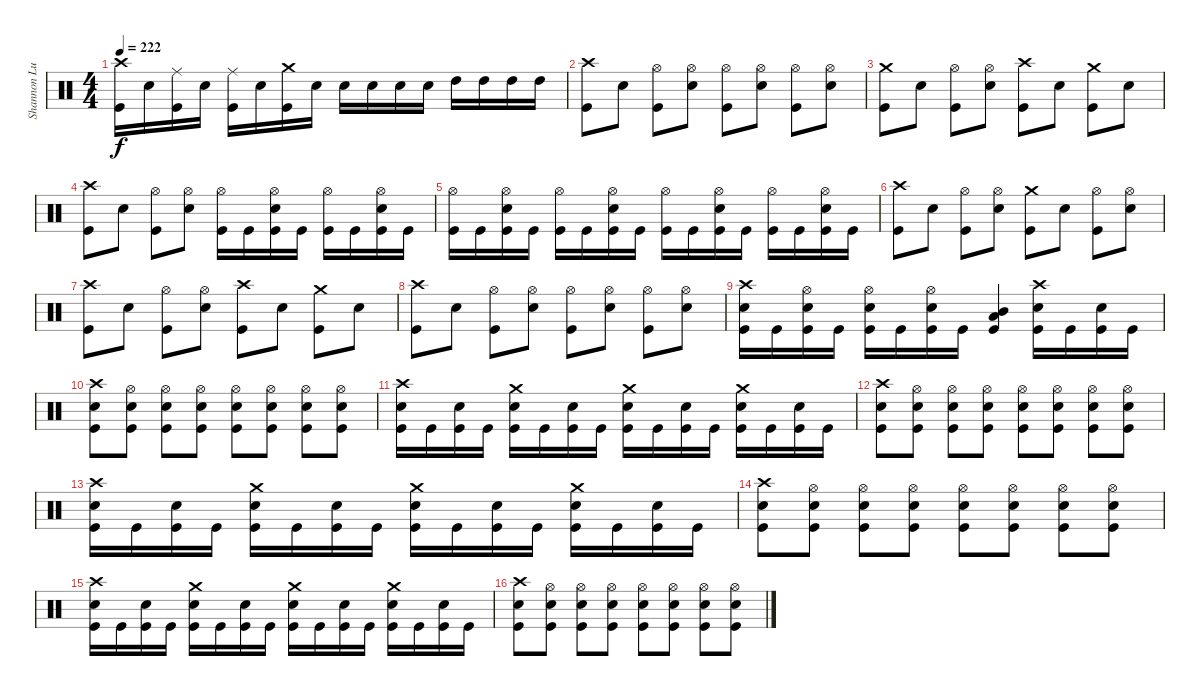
\track ("Shannon Lucas" "Shannon Lu") {instrument percussion}
\staff {score}
\articulation defaults
\ts (4 4)
\tempo 222
\clef neutral
\ks c
("Crash high (hit)" "Kick (hit)").16{dy f} "Snare (hit) 2".16 ("Ride (middle)" "Kick (hit)").16 "Snare (hit) 2".16 ("Ride (middle)" "Kick (hit)").16 "Snare (hit) 2".16 ("Crash medium (hit)" "Kick (hit)").16 "Snare (hit) 2".16 "Snare (hit) 2".16 "Snare (hit) 2".16 "Snare (hit) 2".16 "Snare (hit) 2".16 "High Tom (hit)".16 "High Tom (hit)".16 "High Tom (hit)".16 "High Tom (hit)".16 |
("Crash high (hit)" "Kick (hit)").8 "Snare (hit) 2".8 ("Hi-Hat (open)" "Kick (hit)").8 ("Hi-Hat (open)" "Snare (hit) 2").8 ("Hi-Hat (open)" "Kick (hit)").8 ("Hi-Hat (open)" "Snare (hit) 2").8 ("Hi-Hat (open)" "Kick (hit)").8 ("Hi-Hat (open)" "Snare (hit) 2").8 |
("Crash medium (hit)" "Kick (hit)").8 "Snare (hit) 2".8 ("Hi-Hat (open)" "Kick (hit)").8 ("Hi-Hat (open)" "Snare (hit) 2").8 ("Crash high (hit)" "Kick (hit)").8 "Snare (hit) 2".8 ("Crash medium (hit)" "Kick (hit)").8 "Snare (hit) 2".8 |
("Crash high (hit)" "Kick (hit)").8 "Snare (hit) 2".8 ("Hi-Hat (open)" "Kick (hit)").8 ("Hi-Hat (open)" "Snare (hit) 2").8 ("Hi-Hat (open)" "Kick (hit)").16 "Kick (hit)".16 ("Hi-Hat (open)" "Snare (hit) 2" "Kick (hit)").16 "Kick (hit)".16 ("Hi-Hat (open)" "Kick (hit)").16 "Kick (hit)".16 ("Hi-Hat (open)" "Snare (hit) 2" "Kick (hit)").16 "Kick (hit)".16 |
("Hi-Hat (open)" "Kick (hit)").16 "Kick (hit)".16 ("Hi-Hat (open)" "Snare (hit) 2" "Kick (hit)").16 "Kick (hit)".16 ("Hi-Hat (open)" "Kick (hit)").16 "Kick (hit)".16 ("Hi-Hat (open)" "Snare (hit) 2" "Kick (hit)").16 "Kick (hit)".16 ("Hi-Hat (open)" "Kick (hit)").16 "Kick (hit)".16 ("Hi-Hat (open)" "Snare (hit) 2" "Kick (hit)").16 "Kick (hit)".16 ("Hi-Hat (open)" "Kick (hit)").16 "Kick (hit)".16 ("Hi-Hat (open)" "Snare (hit) 2" "Kick (hit)").16 "Kick (hit)".16 |
("Crash high (hit)" "Kick (hit)").8 "Snare (hit) 2".8 ("Hi-Hat (open)" "Kick (hit)").8 ("Hi-Hat (open)" "Snare (hit) 2").8 ("Crash medium (hit)" "Kick (hit)").8 "Snare (hit) 2".8 ("Hi-Hat (open)" "Kick (hit)").8 ("Hi-Hat (open)" "Snare (hit) 2").8 |
("Crash high (hit)" "Kick (hit)").8 "Snare (hit) 2".8 ("Hi-Hat (open)" "Kick (hit)").8 ("Hi-Hat (open)" "Snare (hit) 2").8 ("Crash high (hit)" "Kick (hit)").8 "Snare (hit) 2".8 ("Crash medium (hit)" "Kick (hit)").8 "Snare (hit) 2".8 |
("Crash high (hit)" "Kick (hit)").8 "Snare (hit) 2".8 ("Hi-Hat (open)" "Kick (hit)").8 ("Hi-Hat (open)" "Snare (hit) 2").8 ("Hi-Hat (open)" "Kick (hit)").8 ("Hi-Hat (open)" "Snare (hit) 2").8 ("Hi-Hat (open)" "Kick (hit)").8 ("Hi-Hat (open)" "Snare (hit) 2").8 |
("Crash high (hit)" "Snare (hit) 2" "Kick (hit)").16 "Kick (hit)".16 ("Hi-Hat (open)" "Snare (hit) 2" "Kick (hit)").16 "Kick (hit)".16 ("Hi-Hat (open)" "Snare (hit) 2" "Kick (hit)").16 "Kick (hit)".16 ("Hi-Hat (open)" "Snare (hit) 2" "Kick (hit)").16 "Kick (hit)".16 ("Low Tom (hit)" "Mid Tom (hit)" "Kick (hit)").4 ("Crash high (hit)" "Snare (hit) 2" "Kick (hit)").16 "Kick (hit)".16 ("Snare (hit) 2" "Kick (hit)").16 "Kick (hit)".16 |
("Crash high (hit)" "Snare (hit) 2" "Kick (hit)").8 ("Hi-Hat (open)" "Snare (hit) 2" "Kick (hit)").8 ("Hi-Hat (open)" "Snare (hit) 2" "Kick (hit)").8 ("Hi-Hat (open)" "Snare (hit) 2" "Kick (hit)").8 ("Hi-Hat (open)" "Snare (hit) 2" "Kick (hit)").8 ("Hi-Hat (open)" "Snare (hit) 2" "Kick (hit)").8 ("Hi-Hat (open)" "Snare (hit) 2" "Kick (hit)").8 ("Hi-Hat (open)" "Snare (hit) 2" "Kick (hit)").8 |
("Crash high (hit)" "Snare (hit) 2" "Kick (hit)").16 "Kick (hit)".16 ("Snare (hit) 2" "Kick (hit)").16 "Kick (hit)".16 ("Crash medium (hit)" "Snare (hit) 2" "Kick (hit)").16 "Kick (hit)".16 ("Snare (hit) 2" "Kick (hit)").16 "Kick (hit)".16 ("Crash medium (hit)" "Snare (hit) 2" "Kick (hit)").16 "Kick (hit)".16 ("Snare (hit) 2" "Kick (hit)").16 "Kick (hit)".16 ("Crash medium (hit)" "Snare (hit) 2" "Kick (hit)").16 "Kick (hit)".16 ("Snare (hit) 2" "Kick (hit)").16 "Kick (hit)".16 |
("Crash high (hit)" "Snare (hit) 2" "Kick (hit)").8 ("Hi-Hat (open)" "Snare (hit) 2" "Kick (hit)").8 ("Hi-Hat (open)" "Snare (hit) 2" "Kick (hit)").8 ("Hi-Hat (open)" "Snare (hit) 2" "Kick (hit)").8 ("Hi-Hat (open)" "Snare (hit) 2" "Kick (hit)").8 ("Hi-Hat (open)" "Snare (hit) 2" "Kick (hit)").8 ("Hi-Hat (open)" "Snare (hit) 2" "Kick (hit)").8 ("Hi-Hat (open)" "Snare (hit) 2" "Kick (hit)").8 |
("Crash high (hit)" "Snare (hit) 2" "Kick (hit)").16 "Kick (hit)".16 ("Snare (hit) 2" "Kick (hit)").16 "Kick (hit)".16 ("Crash medium (hit)" "Snare (hit) 2" "Kick (hit)").16 "Kick (hit)".16 ("Snare (hit) 2" "Kick (hit)").16 "Kick (hit)".16 ("Crash medium (hit)" "Snare (hit) 2" "Kick (hit)").16 "Kick (hit)".16 ("Snare (hit) 2" "Kick (hit)").16 "Kick (hit)".16 ("Crash medium (hit)" "Snare (hit) 2" "Kick (hit)").16 "Kick (hit)".16 ("Snare (hit) 2" "Kick (hit)").16 "Kick (hit)".16 |
("Crash high (hit)" "Snare (hit) 2" "Kick (hit)").8 ("Hi-Hat (open)" "Snare (hit) 2" "Kick (hit)").8 ("Hi-Hat (open)" "Snare (hit) 2" "Kick (hit)").8 ("Hi-Hat (open)" "Snare (hit) 2" "Kick (hit)").8 ("Hi-Hat (open)" "Snare (hit) 2" "Kick (hit)").8 ("Hi-Hat (open)" "Snare (hit) 2" "Kick (hit)").8 ("Hi-Hat (open)" "Snare (hit) 2" "Kick (hit)").8 ("Hi-Hat (open)" "Snare (hit) 2" "Kick (hit)").8 |
("Crash high (hit)" "Snare (hit) 2" "Kick (hit)").16 "Kick (hit)".16 ("Snare (hit) 2" "Kick (hit)").16 "Kick (hit)".16 ("Crash medium (hit)" "Snare (hit) 2" "Kick (hit)").16 "Kick (hit)".16 ("Snare (hit) 2" "Kick (hit)").16 "Kick (hit)".16 ("Crash medium (hit)" "Snare (hit) 2" "Kick (hit)").16 "Kick (hit)".16 ("Snare (hit) 2" "Kick (hit)").16 "Kick (hit)".16 ("Crash medium (hit)" "Snare (hit) 2" "Kick (hit)").16 "Kick (hit)".16 ("Snare (hit) 2" "Kick (hit)").16 "Kick (hit)".16 |
("Crash high (hit)" "Snare (hit) 2" "Kick (hit)").8 ("Hi-Hat (open)" "Snare (hit) 2" "Kick (hit)").8 ("Hi-Hat (open)" "Snare (hit) 2" "Kick (hit)").8 ("Hi-Hat (open)" "Snare (hit) 2" "Kick (hit)").8 ("Hi-Hat (open)" "Snare (hit) 2" "Kick (hit)").8 ("Hi-Hat (open)" "Snare (hit) 2" "Kick (hit)").8 ("Hi-Hat (open)" "Snare (hit) 2" "Kick (hit)").8 ("Hi-Hat (open)" "Snare (hit) 2" "Kick (hit)").8
